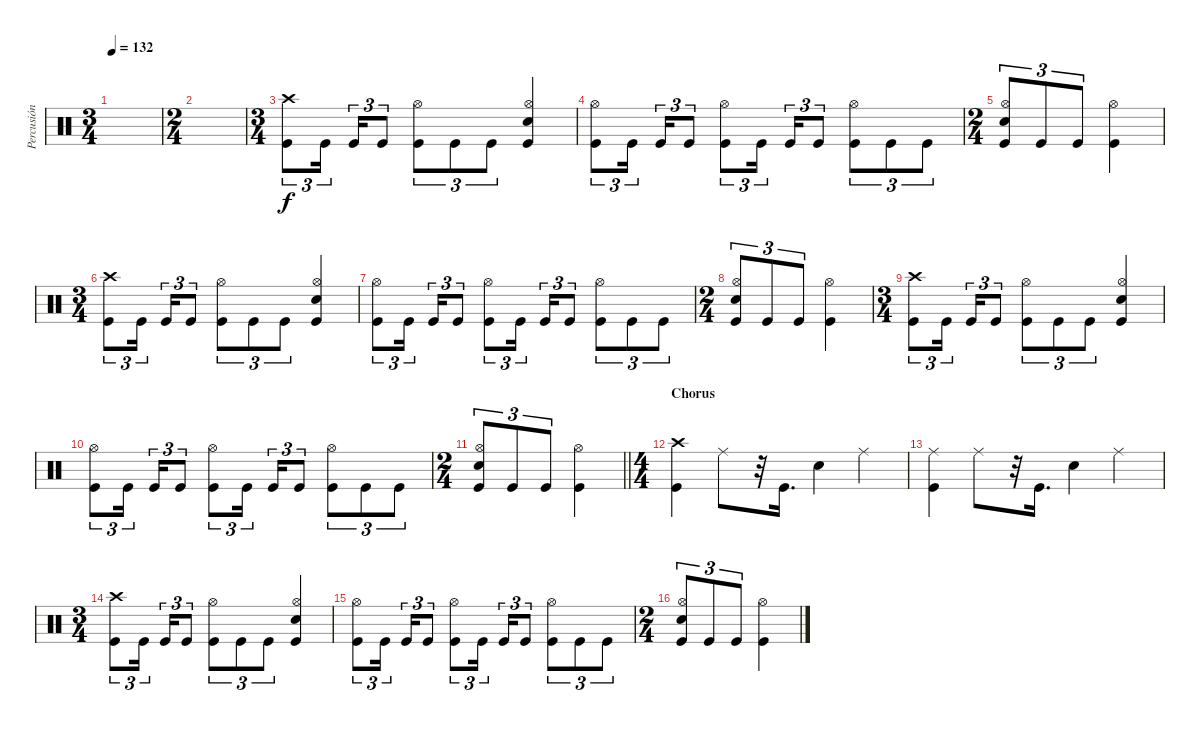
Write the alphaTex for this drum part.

\track ("Percusión" "Percusión") {instrument percussion}
\staff
\articulation defaults
\ts (3 4)
\tempo 132
\clef neutral
\ks c
|
\ts (2 4)
|
\ts (3 4)
("Kick (hit)" "Crash high (hit)").8{tu (3 2)} "Kick (hit)".16{tu (3 2) beam splitsecondary} "Kick (hit)".16{tu (3 2)} "Kick (hit)".8{tu (3 2)} ("Kick (hit)" "Hi-Hat (open)").8{tu (3 2)} "Kick (hit)".8{tu (3 2)} "Kick (hit)".8{tu (3 2)} ("Kick (hit)" "Electric Snare (hit)" "Hi-Hat (open)").4 |
("Kick (hit)" "Hi-Hat (open)").8{tu (3 2)} "Kick (hit)".16{tu (3 2) beam splitsecondary} "Kick (hit)".16{tu (3 2)} "Kick (hit)".8{tu (3 2)} ("Kick (hit)" "Hi-Hat (open)").8{tu (3 2)} "Kick (hit)".16{tu (3 2) beam splitsecondary} "Kick (hit)".16{tu (3 2)} "Kick (hit)".8{tu (3 2)} ("Kick (hit)" "Hi-Hat (open)").8{tu (3 2)} "Kick (hit)".8{tu (3 2)} "Kick (hit)".8{tu (3 2)} |
\ts (2 4)
("Kick (hit)" "Hi-Hat (open)" "Electric Snare (hit)").8{tu (3 2)} "Kick (hit)".8{tu (3 2)} "Kick (hit)".8{tu (3 2)} ("Kick (hit)" "Hi-Hat (open)").4 |
\ts (3 4)
("Kick (hit)" "Crash high (hit)").8{tu (3 2)} "Kick (hit)".16{tu (3 2) beam splitsecondary} "Kick (hit)".16{tu (3 2)} "Kick (hit)".8{tu (3 2)} ("Kick (hit)" "Hi-Hat (open)").8{tu (3 2)} "Kick (hit)".8{tu (3 2)} "Kick (hit)".8{tu (3 2)} ("Kick (hit)" "Electric Snare (hit)" "Hi-Hat (open)").4 |
("Kick (hit)" "Hi-Hat (open)").8{tu (3 2)} "Kick (hit)".16{tu (3 2) beam splitsecondary} "Kick (hit)".16{tu (3 2)} "Kick (hit)".8{tu (3 2)} ("Kick (hit)" "Hi-Hat (open)").8{tu (3 2)} "Kick (hit)".16{tu (3 2) beam splitsecondary} "Kick (hit)".16{tu (3 2)} "Kick (hit)".8{tu (3 2)} ("Kick (hit)" "Hi-Hat (open)").8{tu (3 2)} "Kick (hit)".8{tu (3 2)} "Kick (hit)".8{tu (3 2)} |
\ts (2 4)
("Kick (hit)" "Hi-Hat (open)" "Electric Snare (hit)").8{tu (3 2)} "Kick (hit)".8{tu (3 2)} "Kick (hit)".8{tu (3 2)} ("Kick (hit)" "Hi-Hat (open)").4 |
\ts (3 4)
("Kick (hit)" "Crash high (hit)").8{tu (3 2)} "Kick (hit)".16{tu (3 2) beam splitsecondary} "Kick (hit)".16{tu (3 2)} "Kick (hit)".8{tu (3 2)} ("Kick (hit)" "Hi-Hat (open)").8{tu (3 2)} "Kick (hit)".8{tu (3 2)} "Kick (hit)".8{tu (3 2)} ("Kick (hit)" "Electric Snare (hit)" "Hi-Hat (open)").4 |
("Kick (hit)" "Hi-Hat (open)").8{tu (3 2)} "Kick (hit)".16{tu (3 2) beam splitsecondary} "Kick (hit)".16{tu (3 2)} "Kick (hit)".8{tu (3 2)} ("Kick (hit)" "Hi-Hat (open)").8{tu (3 2)} "Kick (hit)".16{tu (3 2) beam splitsecondary} "Kick (hit)".16{tu (3 2)} "Kick (hit)".8{tu (3 2)} ("Kick (hit)" "Hi-Hat (open)").8{tu (3 2)} "Kick (hit)".8{tu (3 2)} "Kick (hit)".8{tu (3 2)} |
\ts (2 4)
\barLineRight lightlight
("Kick (hit)" "Hi-Hat (open)" "Electric Snare (hit)").8{tu (3 2)} "Kick (hit)".8{tu (3 2)} "Kick (hit)".8{tu (3 2)} ("Kick (hit)" "Hi-Hat (open)").4 |
\ts (4 4)
\section ("" "Chorus")
("Kick (hit)" "Crash high (hit)").4 "Ride (middle)".8 r.32 "Kick (hit)".16{d} "Electric Snare (hit)".4 "Ride (middle)".4 |
("Kick (hit)" "Ride (middle)").4 "Ride (middle)".8 r.32 "Kick (hit)".16{d} "Electric Snare (hit)".4 "Ride (middle)".4 |
\ts (3 4)
("Kick (hit)" "Crash high (hit)").8{tu (3 2)} "Kick (hit)".16{tu (3 2) beam splitsecondary} "Kick (hit)".16{tu (3 2)} "Kick (hit)".8{tu (3 2)} ("Kick (hit)" "Hi-Hat (open)").8{tu (3 2)} "Kick (hit)".8{tu (3 2)} "Kick (hit)".8{tu (3 2)} ("Kick (hit)" "Electric Snare (hit)" "Hi-Hat (open)").4 |
("Kick (hit)" "Hi-Hat (open)").8{tu (3 2)} "Kick (hit)".16{tu (3 2) beam splitsecondary} "Kick (hit)".16{tu (3 2)} "Kick (hit)".8{tu (3 2)} ("Kick (hit)" "Hi-Hat (open)").8{tu (3 2)} "Kick (hit)".16{tu (3 2) beam splitsecondary} "Kick (hit)".16{tu (3 2)} "Kick (hit)".8{tu (3 2)} ("Kick (hit)" "Hi-Hat (open)").8{tu (3 2)} "Kick (hit)".8{tu (3 2)} "Kick (hit)".8{tu (3 2)} |
\ts (2 4)
("Kick (hit)" "Hi-Hat (open)" "Electric Snare (hit)").8{tu (3 2)} "Kick (hit)".8{tu (3 2)} "Kick (hit)".8{tu (3 2)} ("Kick (hit)" "Hi-Hat (open)").4
